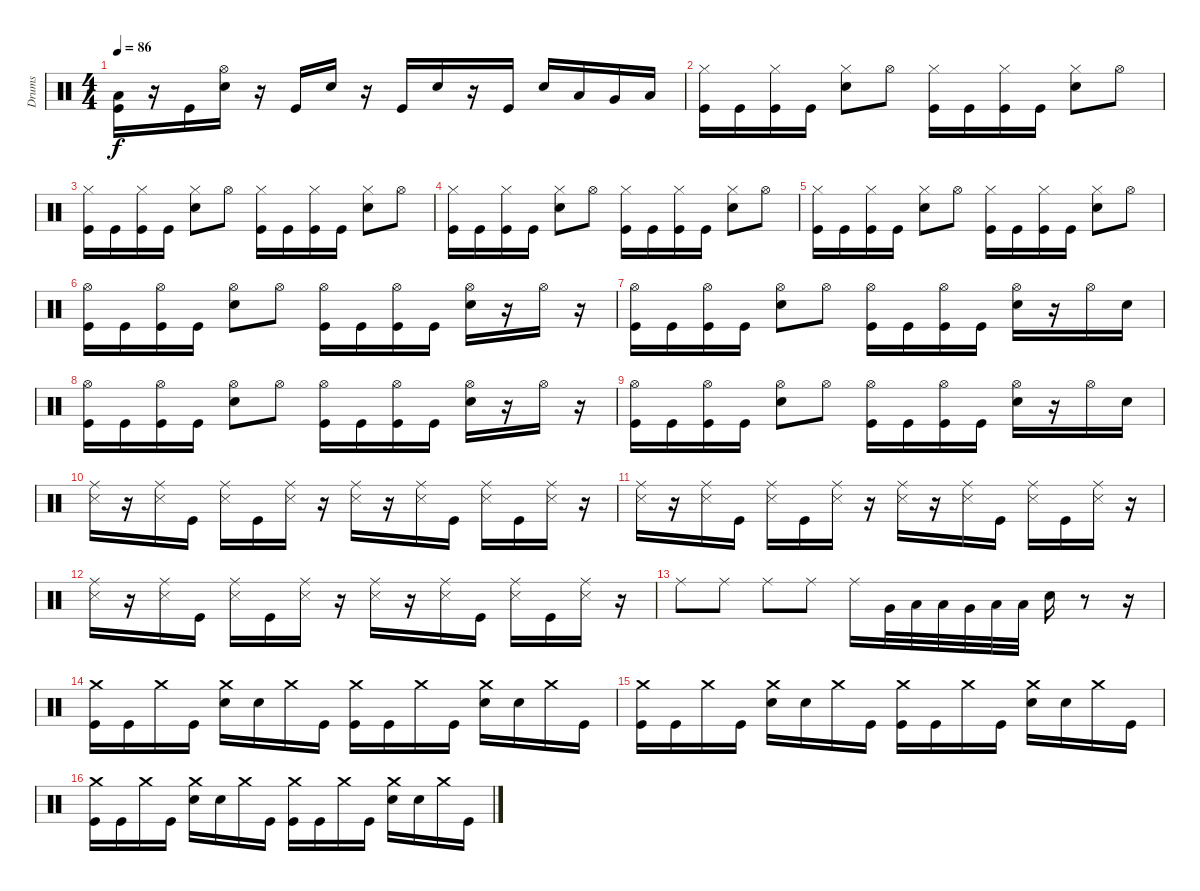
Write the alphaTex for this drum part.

\track ("Drums" "Drums") {instrument percussion}
\staff {score}
\articulation defaults
\ts (4 4)
\tempo 86
\clef neutral
\ks c
("Low Tom (hit)" "Kick (hit)").16{dy f} r.16 "Kick (hit)".16 ("Hi-Hat (open)" "Electric Snare (hit)").16 r.16 "Kick (hit)".16 "Electric Snare (hit)".16 r.16 "Kick (hit)".16 "Electric Snare (hit)".16 r.16 "Kick (hit)".16 "Electric Snare (hit)".16 "Low Tom (hit)".16 "Very Low Tom (hit)".16 "Low Floor Tom (hit)".16 |
("Hi-Hat (closed)" "Kick (hit)").16 "Kick (hit)".16 ("Hi-Hat (closed)" "Kick (hit)").16 "Kick (hit)".16 ("Hi-Hat (closed)" "Electric Snare (hit)").8 "Hi-Hat (open)".8 ("Hi-Hat (closed)" "Kick (hit)").16 "Kick (hit)".16 ("Hi-Hat (closed)" "Kick (hit)").16 "Kick (hit)".16 ("Hi-Hat (closed)" "Electric Snare (hit)").8 "Hi-Hat (open)".8 |
("Hi-Hat (closed)" "Kick (hit)").16 "Kick (hit)".16 ("Hi-Hat (closed)" "Kick (hit)").16 "Kick (hit)".16 ("Hi-Hat (closed)" "Electric Snare (hit)").8 "Hi-Hat (open)".8 ("Hi-Hat (closed)" "Kick (hit)").16 "Kick (hit)".16 ("Hi-Hat (closed)" "Kick (hit)").16 "Kick (hit)".16 ("Hi-Hat (closed)" "Electric Snare (hit)").8 "Hi-Hat (open)".8 |
("Hi-Hat (closed)" "Kick (hit)").16 "Kick (hit)".16 ("Hi-Hat (closed)" "Kick (hit)").16 "Kick (hit)".16 ("Hi-Hat (closed)" "Electric Snare (hit)").8 "Hi-Hat (open)".8 ("Hi-Hat (closed)" "Kick (hit)").16 "Kick (hit)".16 ("Hi-Hat (closed)" "Kick (hit)").16 "Kick (hit)".16 ("Hi-Hat (closed)" "Electric Snare (hit)").8 "Hi-Hat (open)".8 |
("Hi-Hat (closed)" "Kick (hit)").16 "Kick (hit)".16 ("Hi-Hat (closed)" "Kick (hit)").16 "Kick (hit)".16 ("Hi-Hat (closed)" "Electric Snare (hit)").8 "Hi-Hat (open)".8 ("Hi-Hat (closed)" "Kick (hit)").16 "Kick (hit)".16 ("Hi-Hat (closed)" "Kick (hit)").16 "Kick (hit)".16 ("Hi-Hat (closed)" "Electric Snare (hit)").8 "Hi-Hat (open)".8 |
("Hi-Hat (open)" "Kick (hit)").16 "Kick (hit)".16 ("Hi-Hat (open)" "Kick (hit)").16 "Kick (hit)".16 ("Hi-Hat (open)" "Electric Snare (hit)").8 "Hi-Hat (open)".8 ("Hi-Hat (open)" "Kick (hit)").16 "Kick (hit)".16 ("Hi-Hat (open)" "Kick (hit)").16 "Kick (hit)".16 ("Hi-Hat (open)" "Electric Snare (hit)").16 r.16 "Hi-Hat (open)".16 r.16 |
("Hi-Hat (open)" "Kick (hit)").16 "Kick (hit)".16 ("Hi-Hat (open)" "Kick (hit)").16 "Kick (hit)".16 ("Hi-Hat (open)" "Electric Snare (hit)").8 "Hi-Hat (open)".8 ("Hi-Hat (open)" "Kick (hit)").16 "Kick (hit)".16 ("Hi-Hat (open)" "Kick (hit)").16 "Kick (hit)".16 ("Hi-Hat (open)" "Electric Snare (hit)").16 r.16 "Hi-Hat (open)".16 "Electric Snare (hit)".16 |
("Hi-Hat (open)" "Kick (hit)").16 "Kick (hit)".16 ("Hi-Hat (open)" "Kick (hit)").16 "Kick (hit)".16 ("Hi-Hat (open)" "Electric Snare (hit)").8 "Hi-Hat (open)".8 ("Hi-Hat (open)" "Kick (hit)").16 "Kick (hit)".16 ("Hi-Hat (open)" "Kick (hit)").16 "Kick (hit)".16 ("Hi-Hat (open)" "Electric Snare (hit)").16 r.16 "Hi-Hat (open)".16 r.16 |
("Hi-Hat (open)" "Kick (hit)").16 "Kick (hit)".16 ("Hi-Hat (open)" "Kick (hit)").16 "Kick (hit)".16 ("Hi-Hat (open)" "Electric Snare (hit)").8 "Hi-Hat (open)".8 ("Hi-Hat (open)" "Kick (hit)").16 "Kick (hit)".16 ("Hi-Hat (open)" "Kick (hit)").16 "Kick (hit)".16 ("Hi-Hat (open)" "Electric Snare (hit)").16 r.16 "Hi-Hat (open)".16 "Electric Snare (hit)".16 |
("Ride (middle)" "Snare (side stick) 3").16 r.16 ("Ride (middle)" "Snare (side stick) 3").16 "Kick (hit)".16 ("Ride (middle)" "Snare (side stick) 3").16 "Kick (hit)".16 ("Ride (middle)" "Snare (side stick) 3").16 r.16 ("Ride (middle)" "Snare (side stick) 3").16 r.16 ("Ride (middle)" "Snare (side stick) 3").16 "Kick (hit)".16 ("Ride (middle)" "Snare (side stick) 3").16 "Kick (hit)".16 ("Ride (middle)" "Snare (side stick) 3").16 r.16 |
("Ride (middle)" "Snare (side stick) 3").16 r.16 ("Ride (middle)" "Snare (side stick) 3").16 "Kick (hit)".16 ("Ride (middle)" "Snare (side stick) 3").16 "Kick (hit)".16 ("Ride (middle)" "Snare (side stick) 3").16 r.16 ("Ride (middle)" "Snare (side stick) 3").16 r.16 ("Ride (middle)" "Snare (side stick) 3").16 "Kick (hit)".16 ("Ride (middle)" "Snare (side stick) 3").16 "Kick (hit)".16 ("Ride (middle)" "Snare (side stick) 3").16 r.16 |
("Ride (middle)" "Snare (side stick) 3").16 r.16 ("Ride (middle)" "Snare (side stick) 3").16 "Kick (hit)".16 ("Ride (middle)" "Snare (side stick) 3").16 "Kick (hit)".16 ("Ride (middle)" "Snare (side stick) 3").16 r.16 ("Ride (middle)" "Snare (side stick) 3").16 r.16 ("Ride (middle)" "Snare (side stick) 3").16 "Kick (hit)".16 ("Ride (middle)" "Snare (side stick) 3").16 "Kick (hit)".16 ("Ride (middle)" "Snare (side stick) 3").16 r.16{volume 3} |
"Ride (middle)".8{volume 13} "Ride (middle)".8 "Ride (middle)".8 "Ride (middle)".8 "Ride (middle)".16 "Very Low Tom (hit)".32 "Low Tom (hit)".32 "Low Tom (hit)".32 "Very Low Tom (hit)".32 "Low Floor Tom (hit)".32 "Low Floor Tom (hit)".32 "Electric Snare (hit)".16 r.8 r.16 |
("Crash medium (hit)" "Kick (hit)").16{volume 13} "Kick (hit)".16 "Crash medium (hit)".16 "Kick (hit)".16 ("Crash medium (hit)" "Electric Snare (hit)").16 "Electric Snare (hit)".16 "Crash medium (hit)".16 "Kick (hit)".16 ("Crash medium (hit)" "Kick (hit)").16 "Kick (hit)".16 "Crash medium (hit)".16 "Kick (hit)".16 ("Crash medium (hit)" "Electric Snare (hit)").16 "Electric Snare (hit)".16 "Crash medium (hit)".16 "Kick (hit)".16 |
("Crash medium (hit)" "Kick (hit)").16{volume 13} "Kick (hit)".16 "Crash medium (hit)".16 "Kick (hit)".16 ("Crash medium (hit)" "Electric Snare (hit)").16 "Electric Snare (hit)".16 "Crash medium (hit)".16 "Kick (hit)".16 ("Crash medium (hit)" "Kick (hit)").16 "Kick (hit)".16 "Crash medium (hit)".16 "Kick (hit)".16 ("Crash medium (hit)" "Electric Snare (hit)").16 "Electric Snare (hit)".16 "Crash medium (hit)".16 "Kick (hit)".16 |
("Crash medium (hit)" "Kick (hit)").16{volume 13} "Kick (hit)".16 "Crash medium (hit)".16 "Kick (hit)".16 ("Crash medium (hit)" "Electric Snare (hit)").16 "Electric Snare (hit)".16 "Crash medium (hit)".16 "Kick (hit)".16 ("Crash medium (hit)" "Kick (hit)").16 "Kick (hit)".16 "Crash medium (hit)".16 "Kick (hit)".16 ("Crash medium (hit)" "Electric Snare (hit)").16 "Electric Snare (hit)".16 "Crash medium (hit)".16 "Kick (hit)".16
